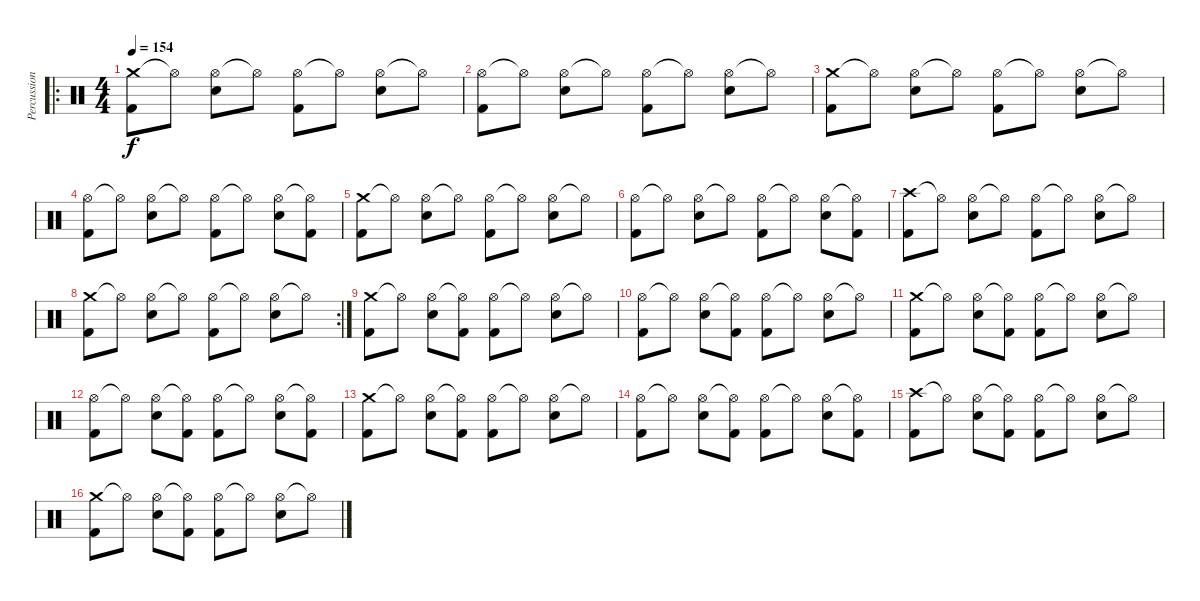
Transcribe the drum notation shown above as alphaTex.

\track ("Percussion" "Percussion") {instrument percussion}
\staff {score}
\articulation defaults
\ro
\ts (4 4)
\tempo 154
\clef neutral
\ks c
("Crash medium (hit)" "Kick (hit) 2").8{dy f} "Hi-Hat (open)"{t}.8 ("Hi-Hat (open)" "Electric Snare (hit)").8 "Hi-Hat (open)"{t}.8 ("Hi-Hat (open)" "Kick (hit) 2").8 "Hi-Hat (open)"{t}.8 ("Hi-Hat (open)" "Electric Snare (hit)").8 "Hi-Hat (open)"{t}.8 |
("Hi-Hat (open)" "Kick (hit) 2").8 "Hi-Hat (open)"{t}.8 ("Hi-Hat (open)" "Electric Snare (hit)").8 "Hi-Hat (open)"{t}.8 ("Hi-Hat (open)" "Kick (hit) 2").8 "Hi-Hat (open)"{t}.8 ("Hi-Hat (open)" "Electric Snare (hit)").8 "Hi-Hat (open)"{t}.8 |
("Crash medium (hit)" "Kick (hit) 2").8 "Hi-Hat (open)"{t}.8 ("Hi-Hat (open)" "Electric Snare (hit)").8 "Hi-Hat (open)"{t}.8 ("Hi-Hat (open)" "Kick (hit) 2").8 "Hi-Hat (open)"{t}.8 ("Hi-Hat (open)" "Electric Snare (hit)").8 "Hi-Hat (open)"{t}.8 |
("Hi-Hat (open)" "Kick (hit) 2").8 "Hi-Hat (open)"{t}.8 ("Hi-Hat (open)" "Electric Snare (hit)").8 "Hi-Hat (open)"{t}.8 ("Hi-Hat (open)" "Kick (hit) 2").8 "Hi-Hat (open)"{t}.8 ("Hi-Hat (open)" "Electric Snare (hit)").8 ("Hi-Hat (open)"{t} "Kick (hit) 2").8 |
("Crash medium (hit)" "Kick (hit) 2").8 "Hi-Hat (open)"{t}.8 ("Hi-Hat (open)" "Electric Snare (hit)").8 "Hi-Hat (open)"{t}.8 ("Hi-Hat (open)" "Kick (hit) 2").8 "Hi-Hat (open)"{t}.8 ("Hi-Hat (open)" "Electric Snare (hit)").8 "Hi-Hat (open)"{t}.8 |
("Hi-Hat (open)" "Kick (hit) 2").8 "Hi-Hat (open)"{t}.8 ("Hi-Hat (open)" "Electric Snare (hit)").8 "Hi-Hat (open)"{t}.8 ("Hi-Hat (open)" "Kick (hit) 2").8 "Hi-Hat (open)"{t}.8 ("Hi-Hat (open)" "Electric Snare (hit)").8 ("Hi-Hat (open)"{t} "Kick (hit) 2").8 |
("Crash high (hit)" "Kick (hit) 2").8 "Hi-Hat (open)"{t}.8 ("Hi-Hat (open)" "Electric Snare (hit)").8 "Hi-Hat (open)"{t}.8 ("Hi-Hat (open)" "Kick (hit) 2").8 "Hi-Hat (open)"{t}.8 ("Hi-Hat (open)" "Electric Snare (hit)").8 "Hi-Hat (open)"{t}.8 |
\rc 2
("Crash medium (hit)" "Kick (hit) 2").8 "Hi-Hat (open)"{t}.8 ("Hi-Hat (open)" "Electric Snare (hit)").8 "Hi-Hat (open)"{t}.8 ("Hi-Hat (open)" "Kick (hit) 2").8 "Hi-Hat (open)"{t}.8 ("Hi-Hat (open)" "Electric Snare (hit)").8 "Hi-Hat (open)"{t}.8 |
("Crash medium (hit)" "Kick (hit) 2").8 "Hi-Hat (open)"{t}.8 ("Hi-Hat (open)" "Electric Snare (hit)").8 ("Hi-Hat (open)"{t} "Kick (hit) 2").8 ("Hi-Hat (open)" "Kick (hit) 2").8 "Hi-Hat (open)"{t}.8 ("Hi-Hat (open)" "Electric Snare (hit)").8 "Hi-Hat (open)"{t}.8 |
("Hi-Hat (open)" "Kick (hit) 2").8 "Hi-Hat (open)"{t}.8 ("Hi-Hat (open)" "Electric Snare (hit)").8 ("Hi-Hat (open)"{t} "Kick (hit) 2").8 ("Hi-Hat (open)" "Kick (hit) 2").8 "Hi-Hat (open)"{t}.8 ("Hi-Hat (open)" "Electric Snare (hit)").8 "Hi-Hat (open)"{t}.8 |
("Crash medium (hit)" "Kick (hit) 2").8 "Hi-Hat (open)"{t}.8 ("Hi-Hat (open)" "Electric Snare (hit)").8 ("Hi-Hat (open)"{t} "Kick (hit) 2").8 ("Hi-Hat (open)" "Kick (hit) 2").8 "Hi-Hat (open)"{t}.8 ("Hi-Hat (open)" "Electric Snare (hit)").8 "Hi-Hat (open)"{t}.8 |
("Hi-Hat (open)" "Kick (hit) 2").8 "Hi-Hat (open)"{t}.8 ("Hi-Hat (open)" "Electric Snare (hit)").8 ("Hi-Hat (open)"{t} "Kick (hit) 2").8 ("Hi-Hat (open)" "Kick (hit) 2").8 "Hi-Hat (open)"{t}.8 ("Hi-Hat (open)" "Electric Snare (hit)").8 ("Hi-Hat (open)"{t} "Kick (hit) 2").8 |
("Crash medium (hit)" "Kick (hit) 2").8 "Hi-Hat (open)"{t}.8 ("Hi-Hat (open)" "Electric Snare (hit)").8 ("Hi-Hat (open)"{t} "Kick (hit) 2").8 ("Hi-Hat (open)" "Kick (hit) 2").8 "Hi-Hat (open)"{t}.8 ("Hi-Hat (open)" "Electric Snare (hit)").8 "Hi-Hat (open)"{t}.8 |
("Hi-Hat (open)" "Kick (hit) 2").8 "Hi-Hat (open)"{t}.8 ("Hi-Hat (open)" "Electric Snare (hit)").8 ("Hi-Hat (open)"{t} "Kick (hit) 2").8 ("Hi-Hat (open)" "Kick (hit) 2").8 "Hi-Hat (open)"{t}.8 ("Hi-Hat (open)" "Electric Snare (hit)").8 ("Hi-Hat (open)"{t} "Kick (hit) 2").8 |
("Crash high (hit)" "Kick (hit) 2").8 "Hi-Hat (open)"{t}.8 ("Hi-Hat (open)" "Electric Snare (hit)").8 ("Hi-Hat (open)"{t} "Kick (hit) 2").8 ("Hi-Hat (open)" "Kick (hit) 2").8 "Hi-Hat (open)"{t}.8 ("Hi-Hat (open)" "Electric Snare (hit)").8 "Hi-Hat (open)"{t}.8 |
("Crash medium (hit)" "Kick (hit) 2").8 "Hi-Hat (open)"{t}.8 ("Hi-Hat (open)" "Electric Snare (hit)").8 ("Hi-Hat (open)"{t} "Kick (hit) 2").8 ("Hi-Hat (open)" "Kick (hit) 2").8 "Hi-Hat (open)"{t}.8 ("Hi-Hat (open)" "Electric Snare (hit)").8 "Hi-Hat (open)"{t}.8
